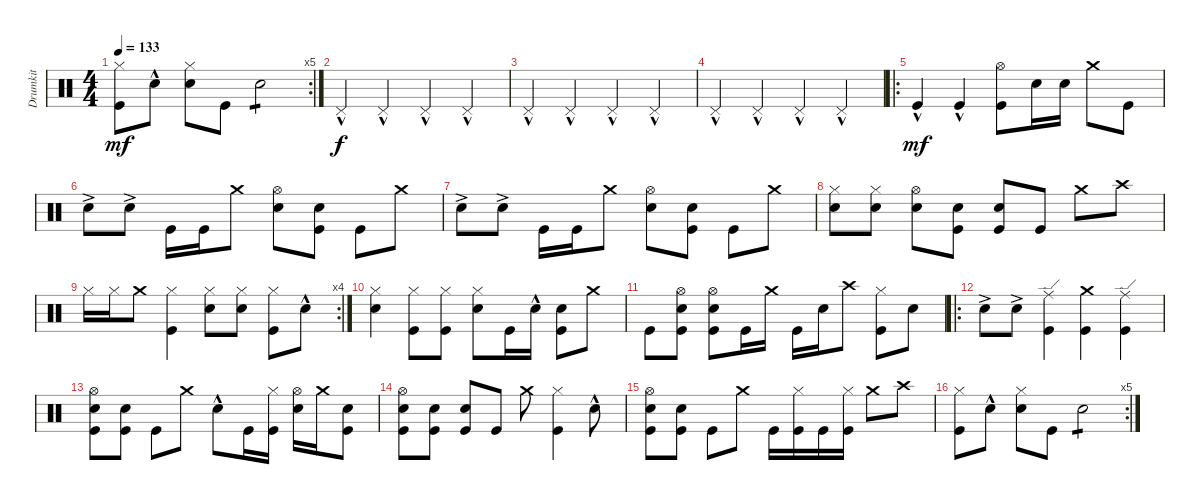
\track ("Drumkit" "Drumkit") {instrument percussion}
\staff {score}
\articulation defaults
\rc 5
\ts (4 4)
\tempo 133
\clef neutral
\ks c
("Kick (hit)" "Hi-Hat (closed)").8{dy mf} "Snare (hit) 2"{hac}.8 ("Snare (hit) 2" "Hi-Hat (closed)").8 "Kick (hit)".8 "Snare (hit) 2".2{tp 1} |
"Pedal Hi-Hat (hit)"{hac}.4{dy f} "Pedal Hi-Hat (hit)"{hac}.4 "Pedal Hi-Hat (hit)"{hac}.4 "Pedal Hi-Hat (hit)"{hac}.4 |
"Pedal Hi-Hat (hit)"{hac}.4 "Pedal Hi-Hat (hit)"{hac}.4 "Pedal Hi-Hat (hit)"{hac}.4 "Pedal Hi-Hat (hit)"{hac}.4 |
"Pedal Hi-Hat (hit)"{hac}.4 "Pedal Hi-Hat (hit)"{hac}.4 "Pedal Hi-Hat (hit)"{hac}.4 "Pedal Hi-Hat (hit)"{hac}.4 |
\ro "Kick (hit)"{hac}.4{dy mf} "Kick (hit)"{hac}.4
("Kick (hit)" "Hi-Hat (open)").8 "Snare (hit) 2".16 "Snare (hit) 2".16 "Crash medium (hit)".8 "Kick (hit)".8 |
"Snare (hit) 2"{ac}.8 "Snare (hit) 2"{ac}.8 "Kick (hit)".16 "Kick (hit)".16 "Crash medium (hit)".8 ("Snare (hit) 2" "Hi-Hat (open)").8 ("Snare (hit) 2" "Kick (hit)").8 "Kick (hit)".8 "Crash medium (hit)".8 |
"Snare (hit) 2"{ac}.8 "Snare (hit) 2"{ac}.8 "Kick (hit)".16 "Kick (hit)".16 "Crash medium (hit)".8 ("Snare (hit) 2" "Hi-Hat (open)").8 ("Snare (hit) 2" "Kick (hit)").8 "Kick (hit)".8 "Crash medium (hit)".8 |
("Snare (hit) 2" "Hi-Hat (closed)").8 ("Snare (hit) 2" "Hi-Hat (closed)").8 ("Snare (hit) 2" "Hi-Hat (open)").8 ("Snare (hit) 2" "Kick (hit)").8 ("Snare (hit) 2" "Kick (hit)").8 "Kick (hit)".8 "Crash medium (hit)".8 "Crash high (hit)".8 |
\rc 4 "Hi-Hat (closed)".16 "Hi-Hat (closed)".16 "Crash medium (hit)".8
("Kick (hit)" "Hi-Hat (closed)").4 ("Snare (hit) 2" "Hi-Hat (closed)").8 ("Snare (hit) 2" "Hi-Hat (closed)").8 ("Hi-Hat (closed)" "Kick (hit)").8 "Snare (hit) 2"{hac}.8 |
("Snare (hit) 2" "Hi-Hat (closed)").4 ("Kick (hit)" "Hi-Hat (closed)").8 ("Kick (hit)" "Hi-Hat (closed)").8 ("Snare (hit) 2" "Hi-Hat (closed)").8 "Kick (hit)".16 "Snare (hit) 2"{hac}.16 ("Snare (hit) 2" "Kick (hit)").8 "Crash medium (hit)".8 |
"Kick (hit)".8 ("Snare (hit) 2" "Kick (hit)" "Hi-Hat (open)").8 ("Kick (hit)" "Hi-Hat (open)" "Snare (hit) 2").8 "Kick (hit)".16 "Crash medium (hit)".16 "Kick (hit)".16 "Snare (hit) 2".16 "Crash high (hit)".8 ("Kick (hit)" "Hi-Hat (closed)").8 "Snare (hit) 2".8 |
\ro "Snare (hit) 2"{ac}.8 "Snare (hit) 2"{ac}.8
("Kick (hit)" "Ride (edge)").4 ("Kick (hit)" "Crash medium (hit)").4 ("Kick (hit)" "Ride (edge)").4 |
("Kick (hit)" "Snare (hit) 2" "Hi-Hat (open)").8 ("Kick (hit)" "Snare (hit) 2").8 "Kick (hit)".8 "Crash medium (hit)".8 "Snare (hit) 2"{hac}.8 "Kick (hit)".16 ("Kick (hit)" "Hi-Hat (closed)").16 ("Snare (hit) 2" "Hi-Hat (open)").16 "Crash medium (hit)".16 ("Snare (hit) 2" "Kick (hit)").8 |
("Snare (hit) 2" "Kick (hit)" "Hi-Hat (open)").8 ("Kick (hit)" "Snare (hit) 2").8 ("Kick (hit)" "Snare (hit) 2").8 "Kick (hit)".8 "Crash medium (hit)".8 ("Kick (hit)" "Hi-Hat (closed)").4 "Snare (hit) 2"{hac}.8 |
("Snare (hit) 2" "Kick (hit)" "Hi-Hat (open)").8 ("Kick (hit)" "Snare (hit) 2").8 "Kick (hit)".8 "Crash medium (hit)".8 "Kick (hit)".16 ("Kick (hit)" "Hi-Hat (closed)").16 "Kick (hit)".16 ("Kick (hit)" "Hi-Hat (closed)").16 "Crash medium (hit)".8 "Crash high (hit)".8 |
\rc 5
("Kick (hit)" "Hi-Hat (closed)").8 "Snare (hit) 2"{hac}.8 ("Snare (hit) 2" "Hi-Hat (closed)").8 "Kick (hit)".8 "Snare (hit) 2".2{tp 1}
